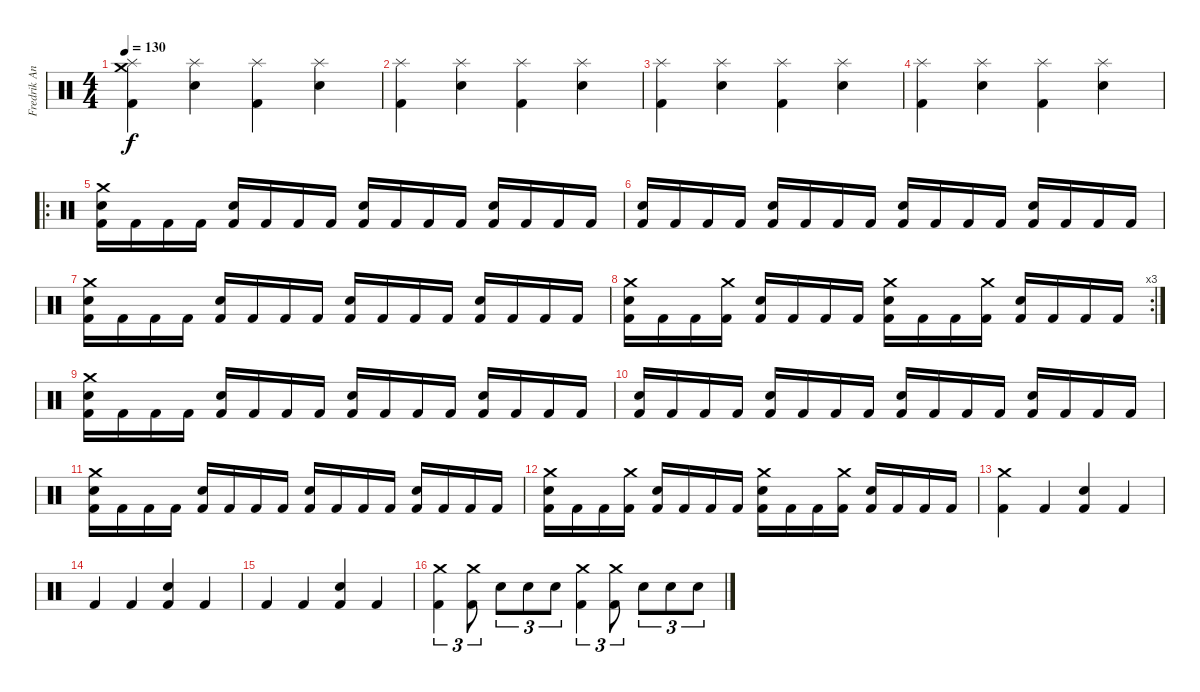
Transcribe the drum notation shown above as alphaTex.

\track ("Fredrik Andersson" "Fredrik An") {instrument percussion}
\staff {score}
\articulation defaults
\ts (4 4)
\tempo 130
\clef neutral
\ks c
("Crash medium (hit)" "Splash (hit)" "Kick (hit) 2").4{dy f} ("Splash (hit)" "Electric Snare (hit)").4 ("Splash (hit)" "Kick (hit) 2").4 ("Splash (hit)" "Electric Snare (hit)").4 |
("Splash (hit)" "Kick (hit) 2").4 ("Splash (hit)" "Electric Snare (hit)").4 ("Splash (hit)" "Kick (hit) 2").4 ("Splash (hit)" "Electric Snare (hit)").4 |
("Splash (hit)" "Kick (hit) 2").4 ("Splash (hit)" "Electric Snare (hit)").4 ("Splash (hit)" "Kick (hit) 2").4 ("Splash (hit)" "Electric Snare (hit)").4 |
("Splash (hit)" "Kick (hit) 2").4 ("Splash (hit)" "Electric Snare (hit)").4 ("Splash (hit)" "Kick (hit) 2").4 ("Splash (hit)" "Electric Snare (hit)").4 |
\ro
("Crash medium (hit)" "Electric Snare (hit)" "Kick (hit) 2").16 "Kick (hit) 2".16 "Kick (hit) 2".16 "Kick (hit) 2".16 ("Electric Snare (hit)" "Kick (hit) 2").16 "Kick (hit) 2".16 "Kick (hit) 2".16 "Kick (hit) 2".16 ("Electric Snare (hit)" "Kick (hit) 2").16 "Kick (hit) 2".16 "Kick (hit) 2".16 "Kick (hit) 2".16 ("Electric Snare (hit)" "Kick (hit) 2").16 "Kick (hit) 2".16 "Kick (hit) 2".16 "Kick (hit) 2".16 |
("Electric Snare (hit)" "Kick (hit) 2").16 "Kick (hit) 2".16 "Kick (hit) 2".16 "Kick (hit) 2".16 ("Electric Snare (hit)" "Kick (hit) 2").16 "Kick (hit) 2".16 "Kick (hit) 2".16 "Kick (hit) 2".16 ("Electric Snare (hit)" "Kick (hit) 2").16 "Kick (hit) 2".16 "Kick (hit) 2".16 "Kick (hit) 2".16 ("Electric Snare (hit)" "Kick (hit) 2").16 "Kick (hit) 2".16 "Kick (hit) 2".16 "Kick (hit) 2".16 |
("Crash medium (hit)" "Electric Snare (hit)" "Kick (hit) 2").16 "Kick (hit) 2".16 "Kick (hit) 2".16 "Kick (hit) 2".16 ("Electric Snare (hit)" "Kick (hit) 2").16 "Kick (hit) 2".16 "Kick (hit) 2".16 "Kick (hit) 2".16 ("Electric Snare (hit)" "Kick (hit) 2").16 "Kick (hit) 2".16 "Kick (hit) 2".16 "Kick (hit) 2".16 ("Electric Snare (hit)" "Kick (hit) 2").16 "Kick (hit) 2".16 "Kick (hit) 2".16 "Kick (hit) 2".16 |
\rc 3
("Crash medium (hit)" "Electric Snare (hit)" "Kick (hit) 2").16 "Kick (hit) 2".16 "Kick (hit) 2".16 ("Crash medium (hit)" "Kick (hit) 2").16 ("Electric Snare (hit)" "Kick (hit) 2").16 "Kick (hit) 2".16 "Kick (hit) 2".16 "Kick (hit) 2".16 ("Crash medium (hit)" "Electric Snare (hit)" "Kick (hit) 2").16 "Kick (hit) 2".16 "Kick (hit) 2".16 ("Crash medium (hit)" "Kick (hit) 2").16 ("Electric Snare (hit)" "Kick (hit) 2").16 "Kick (hit) 2".16 "Kick (hit) 2".16 "Kick (hit) 2".16 |
("Crash medium (hit)" "Electric Snare (hit)" "Kick (hit) 2").16 "Kick (hit) 2".16 "Kick (hit) 2".16 "Kick (hit) 2".16 ("Electric Snare (hit)" "Kick (hit) 2").16 "Kick (hit) 2".16 "Kick (hit) 2".16 "Kick (hit) 2".16 ("Electric Snare (hit)" "Kick (hit) 2").16 "Kick (hit) 2".16 "Kick (hit) 2".16 "Kick (hit) 2".16 ("Electric Snare (hit)" "Kick (hit) 2").16 "Kick (hit) 2".16 "Kick (hit) 2".16 "Kick (hit) 2".16 |
("Electric Snare (hit)" "Kick (hit) 2").16 "Kick (hit) 2".16 "Kick (hit) 2".16 "Kick (hit) 2".16 ("Electric Snare (hit)" "Kick (hit) 2").16 "Kick (hit) 2".16 "Kick (hit) 2".16 "Kick (hit) 2".16 ("Electric Snare (hit)" "Kick (hit) 2").16 "Kick (hit) 2".16 "Kick (hit) 2".16 "Kick (hit) 2".16 ("Electric Snare (hit)" "Kick (hit) 2").16 "Kick (hit) 2".16 "Kick (hit) 2".16 "Kick (hit) 2".16 |
("Crash medium (hit)" "Electric Snare (hit)" "Kick (hit) 2").16 "Kick (hit) 2".16 "Kick (hit) 2".16 "Kick (hit) 2".16 ("Electric Snare (hit)" "Kick (hit) 2").16 "Kick (hit) 2".16 "Kick (hit) 2".16 "Kick (hit) 2".16 ("Electric Snare (hit)" "Kick (hit) 2").16 "Kick (hit) 2".16 "Kick (hit) 2".16 "Kick (hit) 2".16 ("Electric Snare (hit)" "Kick (hit) 2").16 "Kick (hit) 2".16 "Kick (hit) 2".16 "Kick (hit) 2".16 |
("Crash medium (hit)" "Electric Snare (hit)" "Kick (hit) 2").16 "Kick (hit) 2".16 "Kick (hit) 2".16 ("Crash medium (hit)" "Kick (hit) 2").16 ("Electric Snare (hit)" "Kick (hit) 2").16 "Kick (hit) 2".16 "Kick (hit) 2".16 "Kick (hit) 2".16 ("Crash medium (hit)" "Electric Snare (hit)" "Kick (hit) 2").16 "Kick (hit) 2".16 "Kick (hit) 2".16 ("Crash medium (hit)" "Kick (hit) 2").16 ("Electric Snare (hit)" "Kick (hit) 2").16 "Kick (hit) 2".16 "Kick (hit) 2".16 "Kick (hit) 2".16 |
("Crash medium (hit)" "Kick (hit) 2").4 "Kick (hit) 2".4 ("Electric Snare (hit)" "Kick (hit) 2").4 "Kick (hit) 2".4 |
"Kick (hit) 2".4 "Kick (hit) 2".4 ("Electric Snare (hit)" "Kick (hit) 2").4 "Kick (hit) 2".4 |
"Kick (hit) 2".4 "Kick (hit) 2".4 ("Electric Snare (hit)" "Kick (hit) 2").4 "Kick (hit) 2".4 |
("Crash medium (hit)" "Kick (hit) 2").4{tu (3 2)} ("Crash medium (hit)" "Kick (hit) 2").8{tu (3 2)} "Electric Snare (hit)".8{tu (3 2)} "Electric Snare (hit)".8{tu (3 2)} "Electric Snare (hit)".8{tu (3 2)} ("Crash medium (hit)" "Kick (hit) 2").4{tu (3 2)} ("Crash medium (hit)" "Kick (hit) 2").8{tu (3 2)} "Electric Snare (hit)".8{tu (3 2)} "Electric Snare (hit)".8{tu (3 2)} "Electric Snare (hit)".8{tu (3 2)}
